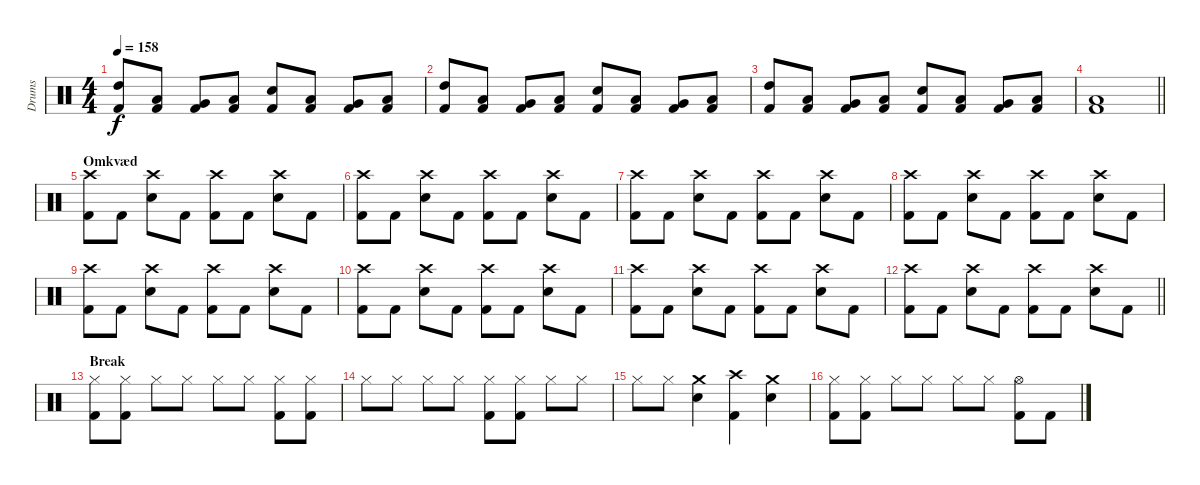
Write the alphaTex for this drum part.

\track ("Drums" "Drums") {instrument percussion}
\staff {score}
\articulation defaults
\ts (4 4)
\tempo 158
\clef neutral
\ks c
("High Tom (hit)" "Kick (hit) 2").8{dy f} ("Low Tom (hit)" "Kick (hit) 2").8 ("Very Low Tom (hit)" "Kick (hit) 2").8 ("Low Floor Tom (hit)" "Kick (hit) 2").8 ("Electric Snare (hit)" "Kick (hit) 2").8 ("Low Tom (hit)" "Kick (hit) 2").8 ("Very Low Tom (hit)" "Kick (hit) 2").8 ("Low Floor Tom (hit)" "Kick (hit) 2").8 |
("High Tom (hit)" "Kick (hit) 2").8 ("Low Tom (hit)" "Kick (hit) 2").8 ("Very Low Tom (hit)" "Kick (hit) 2").8 ("Low Floor Tom (hit)" "Kick (hit) 2").8 ("Electric Snare (hit)" "Kick (hit) 2").8 ("Low Tom (hit)" "Kick (hit) 2").8 ("Very Low Tom (hit)" "Kick (hit) 2").8 ("Low Floor Tom (hit)" "Kick (hit) 2").8 |
("High Tom (hit)" "Kick (hit) 2").8 ("Low Tom (hit)" "Kick (hit) 2").8 ("Very Low Tom (hit)" "Kick (hit) 2").8 ("Low Floor Tom (hit)" "Kick (hit) 2").8 ("Electric Snare (hit)" "Kick (hit) 2").8 ("Low Tom (hit)" "Kick (hit) 2").8 ("Very Low Tom (hit)" "Kick (hit) 2").8 ("Low Floor Tom (hit)" "Kick (hit) 2").8 |
\barLineRight lightlight
("Low Floor Tom (hit)" "Kick (hit) 2").1 |
\section ("" "Omkvæd")
("Crash high (hit)" "Kick (hit) 2").8 "Kick (hit) 2".8 ("Crash high (hit)" "Electric Snare (hit)").8 "Kick (hit) 2".8 ("Crash high (hit)" "Kick (hit) 2").8 "Kick (hit) 2".8 ("Crash high (hit)" "Electric Snare (hit)").8 "Kick (hit) 2".8 |
("Crash high (hit)" "Kick (hit) 2").8 "Kick (hit) 2".8 ("Crash high (hit)" "Electric Snare (hit)").8 "Kick (hit) 2".8 ("Crash high (hit)" "Kick (hit) 2").8 "Kick (hit) 2".8 ("Crash high (hit)" "Electric Snare (hit)").8 "Kick (hit) 2".8 |
("Crash high (hit)" "Kick (hit) 2").8 "Kick (hit) 2".8 ("Crash high (hit)" "Electric Snare (hit)").8 "Kick (hit) 2".8 ("Crash high (hit)" "Kick (hit) 2").8 "Kick (hit) 2".8 ("Crash high (hit)" "Electric Snare (hit)").8 "Kick (hit) 2".8 |
("Crash high (hit)" "Kick (hit) 2").8 "Kick (hit) 2".8 ("Crash high (hit)" "Electric Snare (hit)").8 "Kick (hit) 2".8 ("Crash high (hit)" "Kick (hit) 2").8 "Kick (hit) 2".8 ("Crash high (hit)" "Electric Snare (hit)").8 "Kick (hit) 2".8 |
("Crash high (hit)" "Kick (hit) 2").8 "Kick (hit) 2".8 ("Crash high (hit)" "Electric Snare (hit)").8 "Kick (hit) 2".8 ("Crash high (hit)" "Kick (hit) 2").8 "Kick (hit) 2".8 ("Crash high (hit)" "Electric Snare (hit)").8 "Kick (hit) 2".8 |
("Crash high (hit)" "Kick (hit) 2").8 "Kick (hit) 2".8 ("Crash high (hit)" "Electric Snare (hit)").8 "Kick (hit) 2".8 ("Crash high (hit)" "Kick (hit) 2").8 "Kick (hit) 2".8 ("Crash high (hit)" "Electric Snare (hit)").8 "Kick (hit) 2".8 |
("Crash high (hit)" "Kick (hit) 2").8 "Kick (hit) 2".8 ("Crash high (hit)" "Electric Snare (hit)").8 "Kick (hit) 2".8 ("Crash high (hit)" "Kick (hit) 2").8 "Kick (hit) 2".8 ("Crash high (hit)" "Electric Snare (hit)").8 "Kick (hit) 2".8 |
\barLineRight lightlight
("Crash high (hit)" "Kick (hit) 2").8 "Kick (hit) 2".8 ("Crash high (hit)" "Electric Snare (hit)").8 "Kick (hit) 2".8 ("Crash high (hit)" "Kick (hit) 2").8 "Kick (hit) 2".8 ("Crash high (hit)" "Electric Snare (hit)").8 "Kick (hit) 2".8 |
\section ("" "Break")
("Hi-Hat (closed)" "Kick (hit) 2").8 ("Hi-Hat (closed)" "Kick (hit) 2").8 "Hi-Hat (closed)".8 "Hi-Hat (closed)".8 "Hi-Hat (closed)".8 "Hi-Hat (closed)".8 ("Hi-Hat (closed)" "Kick (hit) 2").8 ("Hi-Hat (closed)" "Kick (hit) 2").8 |
"Hi-Hat (closed)".8 "Hi-Hat (closed)".8 "Hi-Hat (closed)".8 "Hi-Hat (closed)".8 ("Hi-Hat (closed)" "Kick (hit) 2").8 ("Hi-Hat (closed)" "Kick (hit) 2").8 "Hi-Hat (closed)".8 "Hi-Hat (closed)".8 |
"Hi-Hat (closed)".8 "Hi-Hat (closed)".8 ("Crash medium (hit)" "Electric Snare (hit)").4 ("Crash high (hit)" "Kick (hit) 2").4 ("Crash medium (hit)" "Electric Snare (hit)").4 |
("Hi-Hat (closed)" "Kick (hit) 2").8 ("Hi-Hat (closed)" "Kick (hit) 2").8 "Hi-Hat (closed)".8 "Hi-Hat (closed)".8 "Hi-Hat (closed)".8 "Hi-Hat (closed)".8 ("Hi-Hat (open)" "Kick (hit) 2").8 "Kick (hit) 2".8
